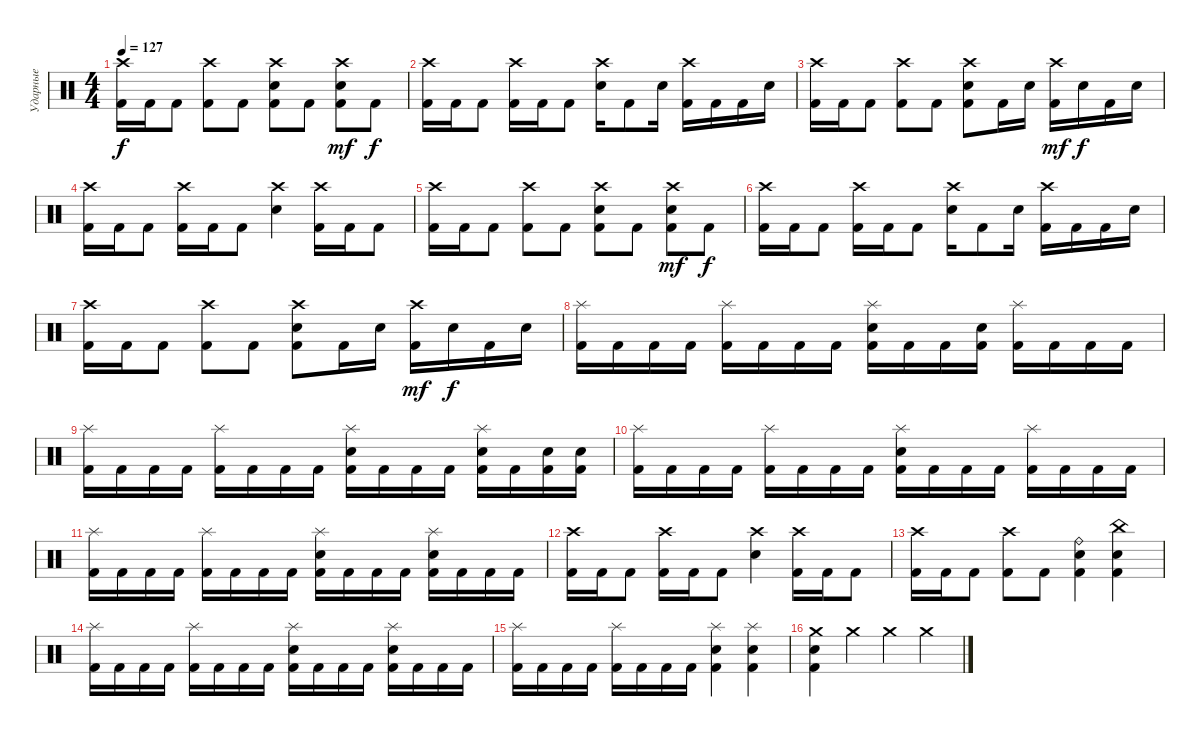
\track ("Ударные" "Ударные") {instrument percussion bank 1}
\staff {score}
\articulation defaults
\ts (4 4)
\tempo 127
\clef neutral
\ks c
("Crash high (hit)" "Kick (hit) 2").16{dy f} "Kick (hit) 2".16 "Kick (hit) 2".8 ("Crash high (hit)" "Kick (hit) 2").8 "Kick (hit) 2".8 ("Crash high (hit)" "Electric Snare (hit)" "Kick (hit) 2").8 "Kick (hit) 2".8 ("Crash high (hit)" "Electric Snare (hit)" "Kick (hit) 2").8{dy mf} "Kick (hit) 2".8{dy f} |
("Crash high (hit)" "Kick (hit) 2").16 "Kick (hit) 2".16 "Kick (hit) 2".8 ("Crash high (hit)" "Kick (hit) 2").16 "Kick (hit) 2".16 "Kick (hit) 2".8 ("Crash high (hit)" "Electric Snare (hit)").16 "Kick (hit) 2".8 "Electric Snare (hit)".16 ("Crash high (hit)" "Kick (hit) 2").16 "Kick (hit) 2".16 "Kick (hit) 2".16 "Electric Snare (hit)".16 |
("Crash high (hit)" "Kick (hit) 2").16 "Kick (hit) 2".16 "Kick (hit) 2".8 ("Crash high (hit)" "Kick (hit) 2").8 "Kick (hit) 2".8 ("Crash high (hit)" "Electric Snare (hit)" "Kick (hit) 2").8 "Kick (hit) 2".16 "Electric Snare (hit)".16 ("Crash high (hit)" "Kick (hit) 2").16{dy mf} "Electric Snare (hit)".16{dy f} "Kick (hit) 2".16 "Electric Snare (hit)".16 |
("Crash high (hit)" "Kick (hit) 2").16 "Kick (hit) 2".16 "Kick (hit) 2".8 ("Crash high (hit)" "Kick (hit) 2").16 "Kick (hit) 2".16 "Kick (hit) 2".8 ("Crash high (hit)" "Electric Snare (hit)").4 ("Crash high (hit)" "Kick (hit) 2").16 "Kick (hit) 2".16 "Kick (hit) 2".8 |
("Crash high (hit)" "Kick (hit) 2").16 "Kick (hit) 2".16 "Kick (hit) 2".8 ("Crash high (hit)" "Kick (hit) 2").8 "Kick (hit) 2".8 ("Crash high (hit)" "Electric Snare (hit)" "Kick (hit) 2").8 "Kick (hit) 2".8 ("Crash high (hit)" "Electric Snare (hit)" "Kick (hit) 2").8{dy mf} "Kick (hit) 2".8{dy f} |
("Crash high (hit)" "Kick (hit) 2").16 "Kick (hit) 2".16 "Kick (hit) 2".8 ("Crash high (hit)" "Kick (hit) 2").16 "Kick (hit) 2".16 "Kick (hit) 2".8 ("Crash high (hit)" "Electric Snare (hit)").16 "Kick (hit) 2".8 "Electric Snare (hit)".16 ("Crash high (hit)" "Kick (hit) 2").16 "Kick (hit) 2".16 "Kick (hit) 2".16 "Electric Snare (hit)".16 |
("Crash high (hit)" "Kick (hit) 2").16 "Kick (hit) 2".16 "Kick (hit) 2".8 ("Crash high (hit)" "Kick (hit) 2").8 "Kick (hit) 2".8 ("Crash high (hit)" "Electric Snare (hit)" "Kick (hit) 2").8 "Kick (hit) 2".16 "Electric Snare (hit)".16 ("Crash high (hit)" "Kick (hit) 2").16{dy mf} "Electric Snare (hit)".16{dy f} "Kick (hit) 2".16 "Electric Snare (hit)".16 |
("Splash (hit)" "Kick (hit) 2").16 "Kick (hit) 2".16 "Kick (hit) 2".16 "Kick (hit) 2".16 ("Splash (hit)" "Kick (hit) 2").16 "Kick (hit) 2".16 "Kick (hit) 2".16 "Kick (hit) 2".16 ("Splash (hit)" "Electric Snare (hit)" "Kick (hit) 2").16 "Kick (hit) 2".16 "Kick (hit) 2".16 ("Electric Snare (hit)" "Kick (hit) 2").16 ("Splash (hit)" "Kick (hit) 2").16 "Kick (hit) 2".16 "Kick (hit) 2".16 "Kick (hit) 2".16 |
("Splash (hit)" "Kick (hit) 2").16 "Kick (hit) 2".16 "Kick (hit) 2".16 "Kick (hit) 2".16 ("Splash (hit)" "Kick (hit) 2").16 "Kick (hit) 2".16 "Kick (hit) 2".16 "Kick (hit) 2".16 ("Splash (hit)" "Electric Snare (hit)" "Kick (hit) 2").16 "Kick (hit) 2".16 "Kick (hit) 2".16 "Kick (hit) 2".16 ("Splash (hit)" "Electric Snare (hit)" "Kick (hit) 2").16 "Kick (hit) 2".16 ("Electric Snare (hit)" "Kick (hit) 2").16 ("Electric Snare (hit)" "Kick (hit) 2").16 |
("Splash (hit)" "Kick (hit) 2").16 "Kick (hit) 2".16 "Kick (hit) 2".16 "Kick (hit) 2".16 ("Splash (hit)" "Kick (hit) 2").16 "Kick (hit) 2".16 "Kick (hit) 2".16 "Kick (hit) 2".16 ("Splash (hit)" "Electric Snare (hit)" "Kick (hit) 2").16 "Kick (hit) 2".16 "Kick (hit) 2".16 "Kick (hit) 2".16 ("Splash (hit)" "Kick (hit) 2").16 "Kick (hit) 2".16 "Kick (hit) 2".16 "Kick (hit) 2".16 |
("Splash (hit)" "Kick (hit) 2").16 "Kick (hit) 2".16 "Kick (hit) 2".16 "Kick (hit) 2".16 ("Splash (hit)" "Kick (hit) 2").16 "Kick (hit) 2".16 "Kick (hit) 2".16 "Kick (hit) 2".16 ("Splash (hit)" "Electric Snare (hit)" "Kick (hit) 2").16 "Kick (hit) 2".16 "Kick (hit) 2".16 "Kick (hit) 2".16 ("Splash (hit)" "Electric Snare (hit)" "Kick (hit) 2").16 "Kick (hit) 2".16 "Kick (hit) 2".16 "Kick (hit) 2".16 |
("Crash high (hit)" "Kick (hit) 2").16 "Kick (hit) 2".16 "Kick (hit) 2".8 ("Crash high (hit)" "Kick (hit) 2").16 "Kick (hit) 2".16 "Kick (hit) 2".8 ("Crash high (hit)" "Electric Snare (hit)").4 ("Crash high (hit)" "Kick (hit) 2").16 "Kick (hit) 2".16 "Kick (hit) 2".8 |
("Crash high (hit)" "Kick (hit) 2").16 "Kick (hit) 2".16 "Kick (hit) 2".8 ("Crash high (hit)" "Kick (hit) 2").8 "Kick (hit) 2".8 ("Ride (bell)" "Electric Snare (hit)" "Kick (hit) 2").4 ("China (hit)" "Electric Snare (hit)" "Kick (hit) 2").4 |
("Splash (hit)" "Kick (hit) 2").16 "Kick (hit) 2".16 "Kick (hit) 2".16 "Kick (hit) 2".16 ("Splash (hit)" "Kick (hit) 2").16 "Kick (hit) 2".16 "Kick (hit) 2".16 "Kick (hit) 2".16 ("Splash (hit)" "Electric Snare (hit)" "Kick (hit) 2").16 "Kick (hit) 2".16 "Kick (hit) 2".16 "Kick (hit) 2".16 ("Splash (hit)" "Electric Snare (hit)" "Kick (hit) 2").16 "Kick (hit) 2".16 "Kick (hit) 2".16 "Kick (hit) 2".16 |
("Splash (hit)" "Kick (hit) 2").16 "Kick (hit) 2".16 "Kick (hit) 2".16 "Kick (hit) 2".16 ("Splash (hit)" "Kick (hit) 2").16 "Kick (hit) 2".16 "Kick (hit) 2".16 "Kick (hit) 2".16 ("Splash (hit)" "Electric Snare (hit)" "Kick (hit) 2").4 ("Splash (hit)" "Electric Snare (hit)" "Kick (hit) 2").4 |
("Crash medium (hit)" "Electric Snare (hit)" "Kick (hit) 2").4 "Crash medium (hit)".4 "Crash medium (hit)".4 "Crash medium (hit)".4
